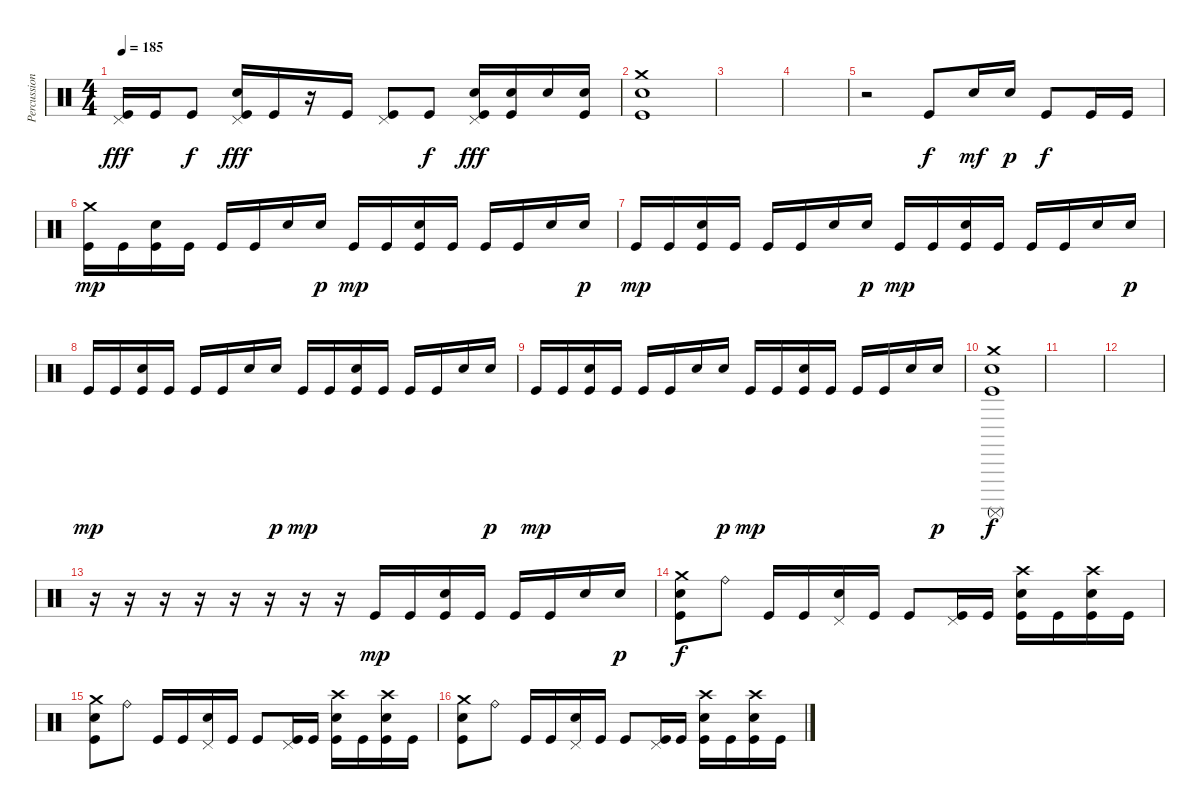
\track ("Percussions" "Percussion") {instrument percussion}
\staff {score}
\articulation defaults
\ts (4 4)
\tempo 185
\clef neutral
\ks c
("Pedal Hi-Hat (hit)" "Kick (hit)").16{dy fff} "Kick (hit)".16 "Kick (hit)".8{dy f} ("Pedal Hi-Hat (hit)" "Electric Snare (hit)" "Kick (hit)").16{dy fff} "Kick (hit)".16 r.16 "Kick (hit)".16 ("Pedal Hi-Hat (hit)" "Kick (hit)").8 "Kick (hit)".8{dy f} ("Pedal Hi-Hat (hit)" "Electric Snare (hit)" "Kick (hit)").16{dy fff} ("Electric Snare (hit)" "Kick (hit)").16 "Electric Snare (hit)".16 ("Electric Snare (hit)" "Kick (hit)").16 |
\section ("" "")
("Crash medium (hit)" "Electric Snare (hit)" "Kick (hit)").1 |
|
|
r.2 "Kick (hit)".8{dy f} "Electric Snare (hit)".16{dy mf} "Electric Snare (hit)".16{dy p} "Kick (hit)".8{dy f} "Kick (hit)".16 "Kick (hit)".16 |
\section ("" "")
("Crash medium (hit)" "Kick (hit)").16{dy mp} "Kick (hit)".16 ("Electric Snare (hit)" "Kick (hit)").16 "Kick (hit)".16 "Kick (hit)".16 "Kick (hit)".16 "Electric Snare (hit)".16 "Electric Snare (hit)".16{dy p} "Kick (hit)".16{dy mp} "Kick (hit)".16 ("Electric Snare (hit)" "Kick (hit)").16 "Kick (hit)".16 "Kick (hit)".16 "Kick (hit)".16 "Electric Snare (hit)".16 "Electric Snare (hit)".16{dy p} |
"Kick (hit)".16{dy mp} "Kick (hit)".16 ("Electric Snare (hit)" "Kick (hit)").16 "Kick (hit)".16 "Kick (hit)".16 "Kick (hit)".16 "Electric Snare (hit)".16 "Electric Snare (hit)".16{dy p} "Kick (hit)".16{dy mp} "Kick (hit)".16 ("Electric Snare (hit)" "Kick (hit)").16 "Kick (hit)".16 "Kick (hit)".16 "Kick (hit)".16 "Electric Snare (hit)".16 "Electric Snare (hit)".16{dy p} |
"Kick (hit)".16{dy mp} "Kick (hit)".16 ("Electric Snare (hit)" "Kick (hit)").16 "Kick (hit)".16 "Kick (hit)".16 "Kick (hit)".16 "Electric Snare (hit)".16 "Electric Snare (hit)".16{dy p} "Kick (hit)".16{dy mp} "Kick (hit)".16 ("Electric Snare (hit)" "Kick (hit)").16 "Kick (hit)".16 "Kick (hit)".16 "Kick (hit)".16 "Electric Snare (hit)".16 "Electric Snare (hit)".16{dy p} |
"Kick (hit)".16{dy mp} "Kick (hit)".16 ("Electric Snare (hit)" "Kick (hit)").16 "Kick (hit)".16 "Kick (hit)".16 "Kick (hit)".16 "Electric Snare (hit)".16 "Electric Snare (hit)".16{dy p} "Kick (hit)".16{dy mp} "Kick (hit)".16 ("Electric Snare (hit)" "Kick (hit)").16 "Kick (hit)".16 "Kick (hit)".16 "Kick (hit)".16 "Electric Snare (hit)".16 "Electric Snare (hit)".16{dy p} |
("Crash medium (hit)" "Surdo (mute)" "Electric Snare (hit)" "Kick (hit)").1{dy f} |
|
|
r.16 r.16 r.16 r.16 r.16 r.16 r.16 r.16 "Kick (hit)".16{dy mp} "Kick (hit)".16 ("Electric Snare (hit)" "Kick (hit)").16 "Kick (hit)".16 "Kick (hit)".16 "Kick (hit)".16 "Electric Snare (hit)".16 "Electric Snare (hit)".16{dy p} |
("Crash medium (hit)" "Electric Snare (hit)" "Kick (hit)").8{dy f} "Ride (bell)".8 "Kick (hit)".16 "Kick (hit)".16 ("Pedal Hi-Hat (hit)" "Electric Snare (hit)").16 "Kick (hit)".16 "Kick (hit)".8 ("Pedal Hi-Hat (hit)" "Kick (hit)").16 "Kick (hit)".16 ("Crash high (hit)" "Electric Snare (hit)" "Kick (hit)").16 "Kick (hit)".16 ("Crash high (hit)" "Electric Snare (hit)" "Kick (hit)").16 "Kick (hit)".16 |
("Crash medium (hit)" "Electric Snare (hit)" "Kick (hit)").8 "Ride (bell)".8 "Kick (hit)".16 "Kick (hit)".16 ("Pedal Hi-Hat (hit)" "Electric Snare (hit)").16 "Kick (hit)".16 "Kick (hit)".8 ("Pedal Hi-Hat (hit)" "Kick (hit)").16 "Kick (hit)".16 ("Crash high (hit)" "Electric Snare (hit)" "Kick (hit)").16 "Kick (hit)".16 ("Crash high (hit)" "Electric Snare (hit)" "Kick (hit)").16 "Kick (hit)".16 |
("Crash medium (hit)" "Electric Snare (hit)" "Kick (hit)").8 "Ride (bell)".8 "Kick (hit)".16 "Kick (hit)".16 ("Pedal Hi-Hat (hit)" "Electric Snare (hit)").16 "Kick (hit)".16 "Kick (hit)".8 ("Pedal Hi-Hat (hit)" "Kick (hit)").16 "Kick (hit)".16 ("Crash high (hit)" "Electric Snare (hit)" "Kick (hit)").16 "Kick (hit)".16 ("Crash high (hit)" "Electric Snare (hit)" "Kick (hit)").16 "Kick (hit)".16
